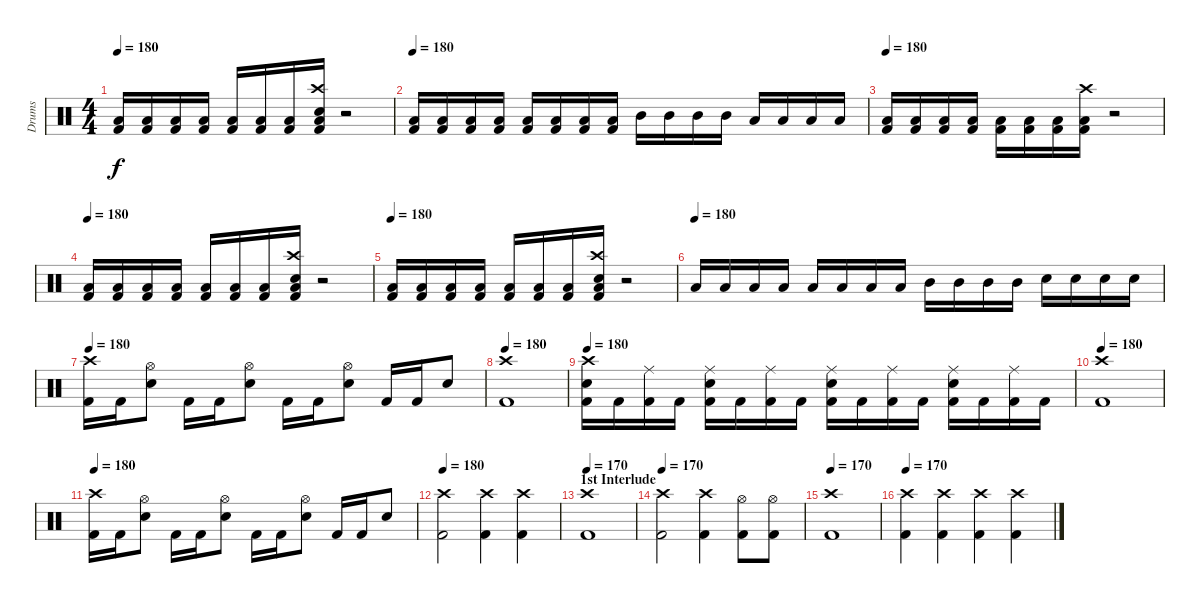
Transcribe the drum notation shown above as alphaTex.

\track ("Drums" "Drums") {instrument percussion}
\staff {score}
\articulation defaults
\ts (4 4)
\tempo 180
\clef neutral
\ks c
("Low Tom (hit)" "Kick (hit) 2").16{dy f} ("Low Tom (hit)" "Kick (hit) 2").16 ("Low Tom (hit)" "Kick (hit) 2").16 ("Low Tom (hit)" "Kick (hit) 2").16 ("Low Tom (hit)" "Kick (hit) 2").16 ("Low Tom (hit)" "Kick (hit) 2").16 ("Low Tom (hit)" "Kick (hit) 2").16 ("Crash high (hit)" "Snare (hit) 2" "Low Tom (hit)" "Kick (hit) 2").16 r.2 |
\tempo 180
("Low Tom (hit)" "Kick (hit) 2").16 ("Low Tom (hit)" "Kick (hit) 2").16 ("Low Tom (hit)" "Kick (hit) 2").16 ("Low Tom (hit)" "Kick (hit) 2").16 ("Low Tom (hit)" "Kick (hit) 2").16 ("Low Tom (hit)" "Kick (hit) 2").16 ("Low Tom (hit)" "Kick (hit) 2").16 ("Low Tom (hit)" "Kick (hit) 2").16 "Mid Tom (hit)".16 "Mid Tom (hit)".16 "Mid Tom (hit)".16 "Mid Tom (hit)".16 "Low Floor Tom (hit)".16 "Low Floor Tom (hit)".16 "Low Floor Tom (hit)".16 "Low Floor Tom (hit)".16 |
\tempo 180
("Low Tom (hit)" "Kick (hit) 2").16 ("Low Tom (hit)" "Kick (hit) 2").16 ("Low Tom (hit)" "Kick (hit) 2").16 ("Low Tom (hit)" "Kick (hit) 2").16 ("Low Tom (hit)" "Kick (hit) 2").16 ("Low Tom (hit)" "Kick (hit) 2").16 ("Low Tom (hit)" "Kick (hit) 2").16 ("Crash high (hit)" "Low Tom (hit)" "Kick (hit) 2").16 r.2 |
\tempo 180
("Low Tom (hit)" "Kick (hit) 2").16 ("Low Tom (hit)" "Kick (hit) 2").16 ("Low Tom (hit)" "Kick (hit) 2").16 ("Low Tom (hit)" "Kick (hit) 2").16 ("Low Tom (hit)" "Kick (hit) 2").16 ("Low Tom (hit)" "Kick (hit) 2").16 ("Low Tom (hit)" "Kick (hit) 2").16 ("Crash high (hit)" "Snare (hit) 2" "Low Tom (hit)" "Kick (hit) 2").16 r.2 |
\tempo 180
("Low Tom (hit)" "Kick (hit) 2").16 ("Low Tom (hit)" "Kick (hit) 2").16 ("Low Tom (hit)" "Kick (hit) 2").16 ("Low Tom (hit)" "Kick (hit) 2").16 ("Low Tom (hit)" "Kick (hit) 2").16 ("Low Tom (hit)" "Kick (hit) 2").16 ("Low Tom (hit)" "Kick (hit) 2").16 ("Crash high (hit)" "Snare (hit) 2" "Low Tom (hit)" "Kick (hit) 2").16 r.2 |
\tempo (180)
"Low Floor Tom (hit)".16 "Low Floor Tom (hit)".16 "Low Floor Tom (hit)".16 "Low Floor Tom (hit)".16 "Low Tom (hit)".16 "Low Tom (hit)".16 "Low Tom (hit)".16 "Low Tom (hit)".16 "Mid Tom (hit)".16 "Mid Tom (hit)".16 "Mid Tom (hit)".16 "Mid Tom (hit)".16 "Snare (hit) 2".16 "Snare (hit) 2".16 "Snare (hit) 2".16 "Snare (hit) 2".16 |
\tempo 180
("Crash high (hit)" "Kick (hit) 2").16 "Kick (hit) 2".16 ("Hi-Hat (open)" "Snare (hit) 2").8 "Kick (hit) 2".16 "Kick (hit) 2".16 ("Hi-Hat (open)" "Snare (hit) 2").8 "Kick (hit) 2".16 "Kick (hit) 2".16 ("Hi-Hat (open)" "Snare (hit) 2").8 "Kick (hit) 2".16 "Kick (hit) 2".16 "Snare (hit) 2".8 |
\tempo 180
("Crash high (hit)" "Kick (hit) 2").1 |
\tempo 180
("Crash high (hit)" "Snare (hit) 2" "Kick (hit) 2").16 "Kick (hit) 2".16 ("Ride (middle)" "Kick (hit) 2").16 "Kick (hit) 2".16 ("Ride (middle)" "Snare (hit) 2" "Kick (hit) 2").16 "Kick (hit) 2".16 ("Ride (middle)" "Kick (hit) 2").16 "Kick (hit) 2".16 ("Ride (middle)" "Snare (hit) 2" "Kick (hit) 2").16 "Kick (hit) 2".16 ("Ride (middle)" "Kick (hit) 2").16 "Kick (hit) 2".16 ("Ride (middle)" "Snare (hit) 2" "Kick (hit) 2").16 "Kick (hit) 2".16 ("Ride (middle)" "Kick (hit) 2").16 "Kick (hit) 2".16 |
\tempo 180
("Crash high (hit)" "Kick (hit) 2").1 |
\tempo 180
("Crash high (hit)" "Kick (hit) 2").16 "Kick (hit) 2".16 ("Hi-Hat (open)" "Snare (hit) 2").8 "Kick (hit) 2".16 "Kick (hit) 2".16 ("Hi-Hat (open)" "Snare (hit) 2").8 "Kick (hit) 2".16 "Kick (hit) 2".16 ("Hi-Hat (open)" "Snare (hit) 2").8 "Kick (hit) 2".16 "Kick (hit) 2".16 "Snare (hit) 2".8 |
\tempo 180
("Crash high (hit)" "Kick (hit) 2").2 ("Crash high (hit)" "Kick (hit) 2").4 ("Crash high (hit)" "Kick (hit) 2").4 |
\section ("" "1st Interlude")
\tempo 170
("Crash high (hit)" "Kick (hit) 2").1 |
\tempo 170
("Crash high (hit)" "Kick (hit) 2").2 ("Crash high (hit)" "Kick (hit) 2").4 ("Hi-Hat (open)" "Kick (hit) 2").8 ("Hi-Hat (open)" "Kick (hit) 2").8 |
\tempo 170
("Crash high (hit)" "Kick (hit) 2").1 |
\tempo 170
("Crash high (hit)" "Kick (hit) 2").4 ("Crash high (hit)" "Kick (hit) 2").4 ("Crash high (hit)" "Kick (hit) 2").4 ("Crash high (hit)" "Kick (hit) 2").4
